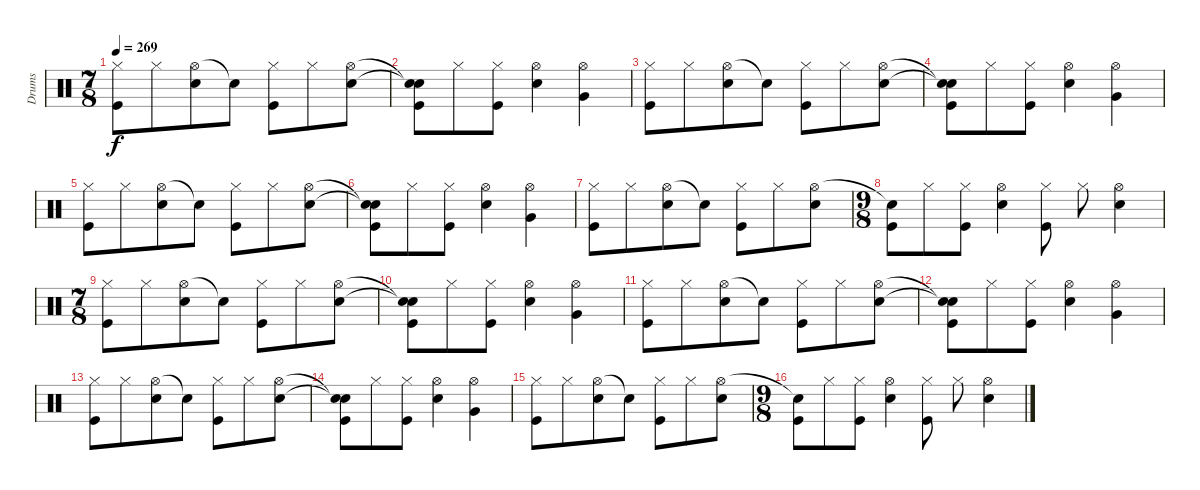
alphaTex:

\track ("Drums" "Drums") {instrument percussion}
\staff {score}
\articulation defaults
\ts (7 8)
\tempo 269
\clef neutral
\ks c
("Hi-Hat (closed)" "Kick (hit)").8{dy f} "Hi-Hat (closed)".8 ("Hi-Hat (open)" "Electric Snare (hit)").8 "Snare (hit)"{t}.8 ("Hi-Hat (closed)" "Kick (hit)").8 "Hi-Hat (closed)".8 ("Hi-Hat (open)" "Electric Snare (hit)").8 |
("Snare (hit)"{t} "Snare (hit)"{t} "Kick (hit)").8 "Hi-Hat (closed)".8 ("Hi-Hat (closed)" "Kick (hit)").8 ("Hi-Hat (open)" "Electric Snare (hit)").4 ("Hi-Hat (open)" "Very Low Tom (hit)").4 |
("Hi-Hat (closed)" "Kick (hit)").8 "Hi-Hat (closed)".8 ("Hi-Hat (open)" "Electric Snare (hit)").8 "Snare (hit)"{t}.8 ("Hi-Hat (closed)" "Kick (hit)").8 "Hi-Hat (closed)".8 ("Hi-Hat (open)" "Electric Snare (hit)").8 |
("Snare (hit)"{t} "Snare (hit)"{t} "Kick (hit)").8 "Hi-Hat (closed)".8 ("Hi-Hat (closed)" "Kick (hit)").8 ("Hi-Hat (open)" "Electric Snare (hit)").4 ("Hi-Hat (open)" "Very Low Tom (hit)").4 |
("Hi-Hat (closed)" "Kick (hit)").8 "Hi-Hat (closed)".8 ("Hi-Hat (open)" "Electric Snare (hit)").8 "Snare (hit)"{t}.8 ("Hi-Hat (closed)" "Kick (hit)").8 "Hi-Hat (closed)".8 ("Hi-Hat (open)" "Electric Snare (hit)").8 |
("Snare (hit)"{t} "Snare (hit)"{t} "Kick (hit)").8 "Hi-Hat (closed)".8 ("Hi-Hat (closed)" "Kick (hit)").8 ("Hi-Hat (open)" "Electric Snare (hit)").4 ("Hi-Hat (open)" "Very Low Tom (hit)").4 |
("Hi-Hat (closed)" "Kick (hit)").8 "Hi-Hat (closed)".8 ("Hi-Hat (open)" "Electric Snare (hit)").8 "Snare (hit)"{t}.8 ("Hi-Hat (closed)" "Kick (hit)").8 "Hi-Hat (closed)".8 ("Hi-Hat (open)" "Electric Snare (hit)").8 |
\ts (9 8)
("Snare (hit)"{t} "Kick (hit)").8 "Hi-Hat (closed)".8 ("Hi-Hat (closed)" "Kick (hit)").8 ("Hi-Hat (open)" "Electric Snare (hit)").4 ("Hi-Hat (closed)" "Kick (hit)").8 "Hi-Hat (closed)".8 ("Hi-Hat (open)" "Electric Snare (hit)").4 |
\ts (7 8)
("Hi-Hat (closed)" "Kick (hit)").8 "Hi-Hat (closed)".8 ("Hi-Hat (open)" "Electric Snare (hit)").8 "Snare (hit)"{t}.8 ("Hi-Hat (closed)" "Kick (hit)").8 "Hi-Hat (closed)".8 ("Hi-Hat (open)" "Electric Snare (hit)").8 |
("Snare (hit)"{t} "Snare (hit)"{t} "Kick (hit)").8 "Hi-Hat (closed)".8 ("Hi-Hat (closed)" "Kick (hit)").8 ("Hi-Hat (open)" "Electric Snare (hit)").4 ("Hi-Hat (open)" "Very Low Tom (hit)").4 |
("Hi-Hat (closed)" "Kick (hit)").8 "Hi-Hat (closed)".8 ("Hi-Hat (open)" "Electric Snare (hit)").8 "Snare (hit)"{t}.8 ("Hi-Hat (closed)" "Kick (hit)").8 "Hi-Hat (closed)".8 ("Hi-Hat (open)" "Electric Snare (hit)").8 |
("Snare (hit)"{t} "Snare (hit)"{t} "Kick (hit)").8 "Hi-Hat (closed)".8 ("Hi-Hat (closed)" "Kick (hit)").8 ("Hi-Hat (open)" "Electric Snare (hit)").4 ("Hi-Hat (open)" "Very Low Tom (hit)").4 |
("Hi-Hat (closed)" "Kick (hit)").8 "Hi-Hat (closed)".8 ("Hi-Hat (open)" "Electric Snare (hit)").8 "Snare (hit)"{t}.8 ("Hi-Hat (closed)" "Kick (hit)").8 "Hi-Hat (closed)".8 ("Hi-Hat (open)" "Electric Snare (hit)").8 |
("Snare (hit)"{t} "Snare (hit)"{t} "Kick (hit)").8 "Hi-Hat (closed)".8 ("Hi-Hat (closed)" "Kick (hit)").8 ("Hi-Hat (open)" "Electric Snare (hit)").4 ("Hi-Hat (open)" "Very Low Tom (hit)").4 |
("Hi-Hat (closed)" "Kick (hit)").8 "Hi-Hat (closed)".8 ("Hi-Hat (open)" "Electric Snare (hit)").8 "Snare (hit)"{t}.8 ("Hi-Hat (closed)" "Kick (hit)").8 "Hi-Hat (closed)".8 ("Hi-Hat (open)" "Electric Snare (hit)").8 |
\ts (9 8)
("Snare (hit)"{t} "Kick (hit)").8 "Hi-Hat (closed)".8 ("Hi-Hat (closed)" "Kick (hit)").8 ("Hi-Hat (open)" "Electric Snare (hit)").4 ("Hi-Hat (closed)" "Kick (hit)").8 "Hi-Hat (closed)".8 ("Hi-Hat (open)" "Electric Snare (hit)").4
